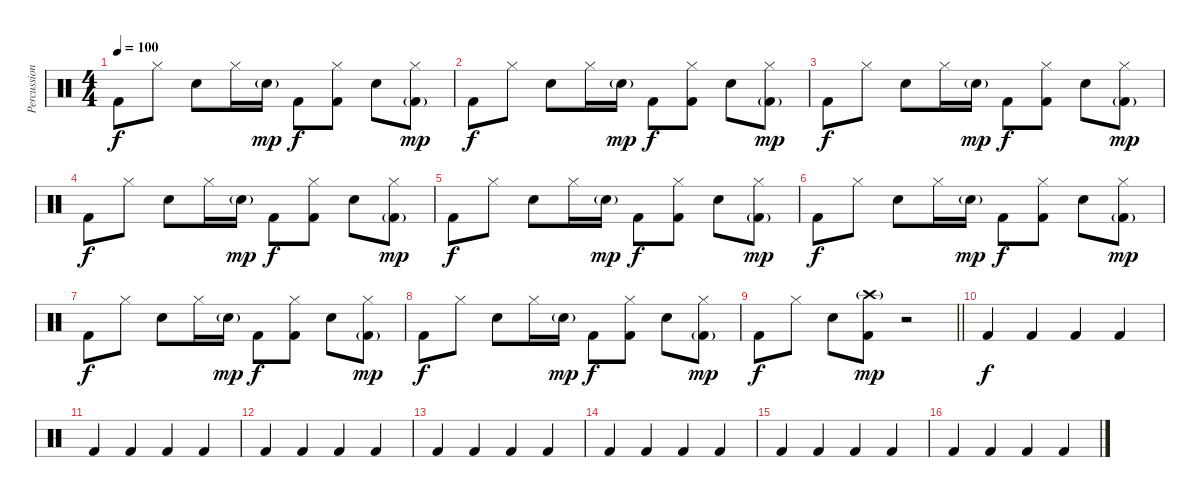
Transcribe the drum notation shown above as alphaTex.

\track ("Percussion" "Percussion") {instrument percussion}
\staff {score}
\articulation defaults
\ts (4 4)
\tempo 100
\clef neutral
\ks c "Kick (hit) 2".8{dy f} "Hi-Hat (closed)".8 "Snare (hit) 2".8 "Hi-Hat (closed)".16 "Snare (hit) 2"{g}.16{dy mp} "Kick (hit) 2".8{dy f}
("Hi-Hat (closed)" "Kick (hit) 2").8 "Snare (hit) 2".8 ("Hi-Hat (closed)" "Kick (hit) 2"{g}).8{dy mp} |
"Kick (hit) 2".8{dy f} "Hi-Hat (closed)".8 "Snare (hit) 2".8 "Hi-Hat (closed)".16 "Snare (hit) 2"{g}.16{dy mp} "Kick (hit) 2".8{dy f} ("Hi-Hat (closed)" "Kick (hit) 2").8 "Snare (hit) 2".8 ("Hi-Hat (closed)" "Kick (hit) 2"{g}).8{dy mp} |
"Kick (hit) 2".8{dy f} "Hi-Hat (closed)".8 "Snare (hit) 2".8 "Hi-Hat (closed)".16 "Snare (hit) 2"{g}.16{dy mp} "Kick (hit) 2".8{dy f} ("Hi-Hat (closed)" "Kick (hit) 2").8 "Snare (hit) 2".8 ("Hi-Hat (closed)" "Kick (hit) 2"{g}).8{dy mp} |
"Kick (hit) 2".8{dy f} "Hi-Hat (closed)".8 "Snare (hit) 2".8 "Hi-Hat (closed)".16 "Snare (hit) 2"{g}.16{dy mp} "Kick (hit) 2".8{dy f} ("Hi-Hat (closed)" "Kick (hit) 2").8 "Snare (hit) 2".8 ("Hi-Hat (closed)" "Kick (hit) 2"{g}).8{dy mp} |
"Kick (hit) 2".8{dy f} "Hi-Hat (closed)".8 "Snare (hit) 2".8 "Hi-Hat (closed)".16 "Snare (hit) 2"{g}.16{dy mp} "Kick (hit) 2".8{dy f} ("Hi-Hat (closed)" "Kick (hit) 2").8 "Snare (hit) 2".8 ("Hi-Hat (closed)" "Kick (hit) 2"{g}).8{dy mp} |
"Kick (hit) 2".8{dy f} "Hi-Hat (closed)".8 "Snare (hit) 2".8 "Hi-Hat (closed)".16 "Snare (hit) 2"{g}.16{dy mp} "Kick (hit) 2".8{dy f} ("Hi-Hat (closed)" "Kick (hit) 2").8 "Snare (hit) 2".8 ("Hi-Hat (closed)" "Kick (hit) 2"{g}).8{dy mp} |
"Kick (hit) 2".8{dy f} "Hi-Hat (closed)".8 "Snare (hit) 2".8 "Hi-Hat (closed)".16 "Snare (hit) 2"{g}.16{dy mp} "Kick (hit) 2".8{dy f} ("Hi-Hat (closed)" "Kick (hit) 2").8 "Snare (hit) 2".8 ("Hi-Hat (closed)" "Kick (hit) 2"{g}).8{dy mp} |
"Kick (hit) 2".8{dy f} "Hi-Hat (closed)".8 "Snare (hit) 2".8 "Hi-Hat (closed)".16 "Snare (hit) 2"{g}.16{dy mp} "Kick (hit) 2".8{dy f} ("Hi-Hat (closed)" "Kick (hit) 2").8 "Snare (hit) 2".8 ("Hi-Hat (closed)" "Kick (hit) 2"{g}).8{dy mp} |
\barLineRight lightlight "Kick (hit) 2".8{dy f} "Hi-Hat (closed)".8 "Snare (hit) 2".8
("Crash high (hit)"{g} "Kick (hit) 2").8{dy mp} r.2 |
"Kick (hit) 2".4{dy f} "Kick (hit) 2".4 "Kick (hit) 2".4 "Kick (hit) 2".4 |
"Kick (hit) 2".4 "Kick (hit) 2".4 "Kick (hit) 2".4 "Kick (hit) 2".4 |
"Kick (hit) 2".4 "Kick (hit) 2".4 "Kick (hit) 2".4 "Kick (hit) 2".4 |
"Kick (hit) 2".4 "Kick (hit) 2".4 "Kick (hit) 2".4 "Kick (hit) 2".4 |
"Kick (hit) 2".4 "Kick (hit) 2".4 "Kick (hit) 2".4 "Kick (hit) 2".4 |
"Kick (hit) 2".4 "Kick (hit) 2".4 "Kick (hit) 2".4 "Kick (hit) 2".4 |
"Kick (hit) 2".4 "Kick (hit) 2".4 "Kick (hit) 2".4 "Kick (hit) 2".4
